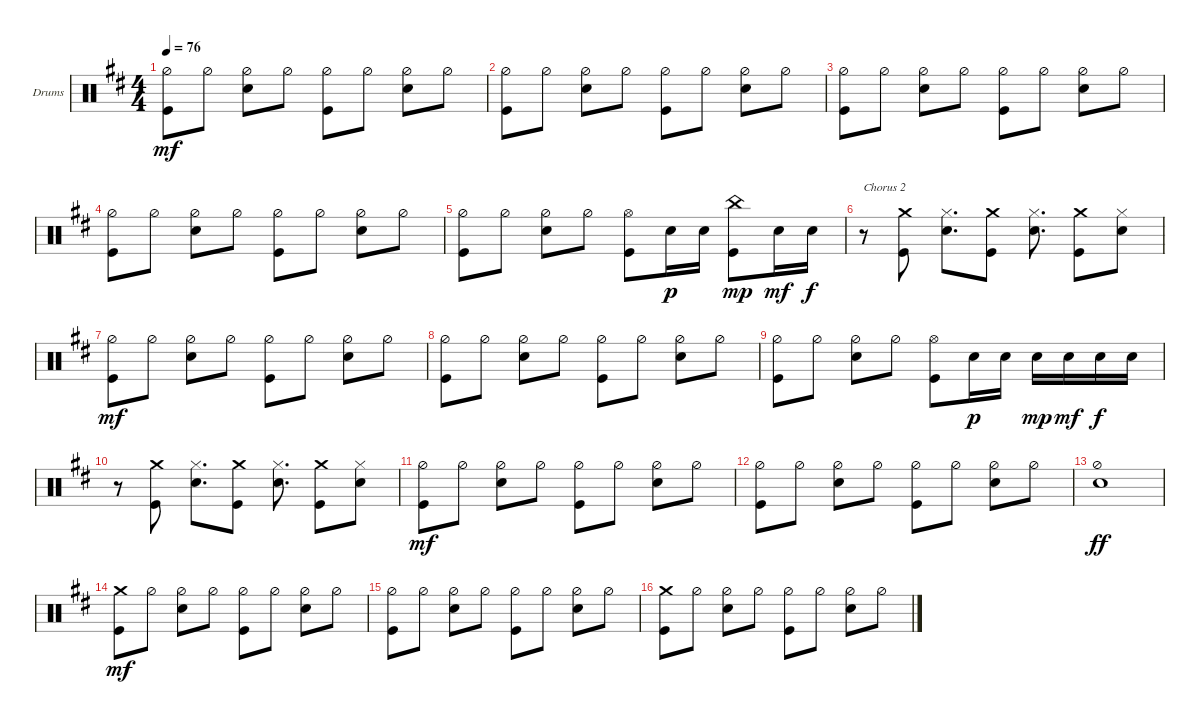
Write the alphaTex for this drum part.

\defaultSystemsLayout 4
\bracketExtendMode groupsimilarinstruments
\firstSystemTrackNameOrientation horizontal
\otherSystemsTrackNameOrientation horizontal
\track ("Drums" "Drums") {instrument percussion}
\staff {score}
\articulation defaults
\ts (4 4)
\tempo 76
\clef neutral
\ks bminor
("Hi-Hat (half)" "Kick (hit)").8{dy mf} "Hi-Hat (half)".8 ("Hi-Hat (half)" "Snare (hit) 2").8 "Hi-Hat (half)".8 ("Hi-Hat (half)" "Kick (hit)").8 "Hi-Hat (half)".8 ("Hi-Hat (half)" "Snare (hit) 2").8 "Hi-Hat (half)".8 |
("Hi-Hat (half)" "Kick (hit)").8 "Hi-Hat (half)".8 ("Hi-Hat (half)" "Snare (hit) 2").8 "Hi-Hat (half)".8 ("Hi-Hat (half)" "Kick (hit)").8 "Hi-Hat (half)".8 ("Hi-Hat (half)" "Snare (hit) 2").8 "Hi-Hat (half)".8 |
("Hi-Hat (half)" "Kick (hit)").8 "Hi-Hat (half)".8 ("Hi-Hat (half)" "Snare (hit) 2").8 "Hi-Hat (half)".8 ("Hi-Hat (half)" "Kick (hit)").8 "Hi-Hat (half)".8 ("Hi-Hat (half)" "Snare (hit) 2").8 "Hi-Hat (half)".8 |
("Hi-Hat (half)" "Kick (hit)").8 "Hi-Hat (half)".8 ("Hi-Hat (half)" "Snare (hit) 2").8 "Hi-Hat (half)".8 ("Hi-Hat (half)" "Kick (hit)").8 "Hi-Hat (half)".8 ("Hi-Hat (half)" "Snare (hit) 2").8 "Hi-Hat (half)".8 |
("Hi-Hat (half)" "Kick (hit)").8 "Hi-Hat (half)".8 ("Hi-Hat (half)" "Snare (hit) 2").8 "Hi-Hat (half)".8 ("Hi-Hat (open)" "Kick (hit)").8 "Snare (hit) 2".16{dy p} "Snare (hit) 2".16 ("Kick (hit)" "China (hit)").8{dy mp} "Snare (hit) 2".16{dy mf} "Snare (hit) 2".16{dy f} |
r.8{txt "Chorus 2"} ("Kick (hit)" "Crash medium (hit)").8 ("Snare (hit) 2" "Hi-Hat (closed)").8{d} ("Kick (hit)" "Crash medium (hit)").8 ("Snare (hit) 2" "Hi-Hat (closed)").8{d} ("Kick (hit)" "Crash medium (hit)").8 ("Snare (hit) 2" "Hi-Hat (closed)").8 |
("Hi-Hat (half)" "Kick (hit)").8{dy mf} "Hi-Hat (half)".8 ("Hi-Hat (half)" "Snare (hit) 2").8 "Hi-Hat (half)".8 ("Hi-Hat (half)" "Kick (hit)").8 "Hi-Hat (half)".8 ("Hi-Hat (half)" "Snare (hit) 2").8 "Hi-Hat (half)".8 |
("Hi-Hat (half)" "Kick (hit)").8 "Hi-Hat (half)".8 ("Hi-Hat (half)" "Snare (hit) 2").8 "Hi-Hat (half)".8 ("Hi-Hat (half)" "Kick (hit)").8 "Hi-Hat (half)".8 ("Hi-Hat (half)" "Snare (hit) 2").8 "Hi-Hat (half)".8 |
("Hi-Hat (half)" "Kick (hit)").8 "Hi-Hat (half)".8 ("Hi-Hat (half)" "Snare (hit) 2").8 "Hi-Hat (half)".8 ("Hi-Hat (open)" "Kick (hit)").8 "Snare (hit) 2".16{dy p} "Snare (hit) 2".16 "Snare (hit) 2".16{dy mp} "Snare (hit) 2".16{dy mf} "Snare (hit) 2".16{dy f} "Snare (hit) 2".16 |
r.8 ("Kick (hit)" "Crash medium (hit)").8 ("Snare (hit) 2" "Hi-Hat (closed)").8{d} ("Kick (hit)" "Crash medium (hit)").8 ("Snare (hit) 2" "Hi-Hat (closed)").8{d} ("Kick (hit)" "Crash medium (hit)").8 ("Snare (hit) 2" "Hi-Hat (closed)").8 |
("Hi-Hat (half)" "Kick (hit)").8{dy mf} "Hi-Hat (half)".8 ("Hi-Hat (half)" "Snare (hit) 2").8 "Hi-Hat (half)".8 ("Hi-Hat (half)" "Kick (hit)").8 "Hi-Hat (half)".8 ("Hi-Hat (half)" "Snare (hit) 2").8 "Hi-Hat (half)".8 |
("Hi-Hat (half)" "Kick (hit)").8 "Hi-Hat (half)".8 ("Hi-Hat (half)" "Snare (hit) 2").8 "Hi-Hat (half)".8 ("Hi-Hat (half)" "Kick (hit)").8 "Hi-Hat (half)".8 ("Hi-Hat (half)" "Snare (hit) 2").8 "Hi-Hat (half)".8 |
("Hi-Hat (half)" "Snare (hit) 2").1{dy ff} |
("Kick (hit)" "Crash medium (hit)").8{dy mf} "Hi-Hat (half)".8 ("Hi-Hat (half)" "Snare (hit) 2").8 "Hi-Hat (half)".8 ("Hi-Hat (half)" "Kick (hit)").8 "Hi-Hat (half)".8 ("Hi-Hat (half)" "Snare (hit) 2").8 "Hi-Hat (half)".8 |
("Hi-Hat (half)" "Kick (hit)").8 "Hi-Hat (half)".8 ("Hi-Hat (half)" "Snare (hit) 2").8 "Hi-Hat (half)".8 ("Hi-Hat (half)" "Kick (hit)").8 "Hi-Hat (half)".8 ("Hi-Hat (half)" "Snare (hit) 2").8 "Hi-Hat (half)".8 |
("Kick (hit)" "Crash medium (hit)").8 "Hi-Hat (half)".8 ("Hi-Hat (half)" "Snare (hit) 2").8 "Hi-Hat (half)".8 ("Hi-Hat (half)" "Kick (hit)").8 "Hi-Hat (half)".8 ("Hi-Hat (half)" "Snare (hit) 2").8 "Hi-Hat (half)".8
